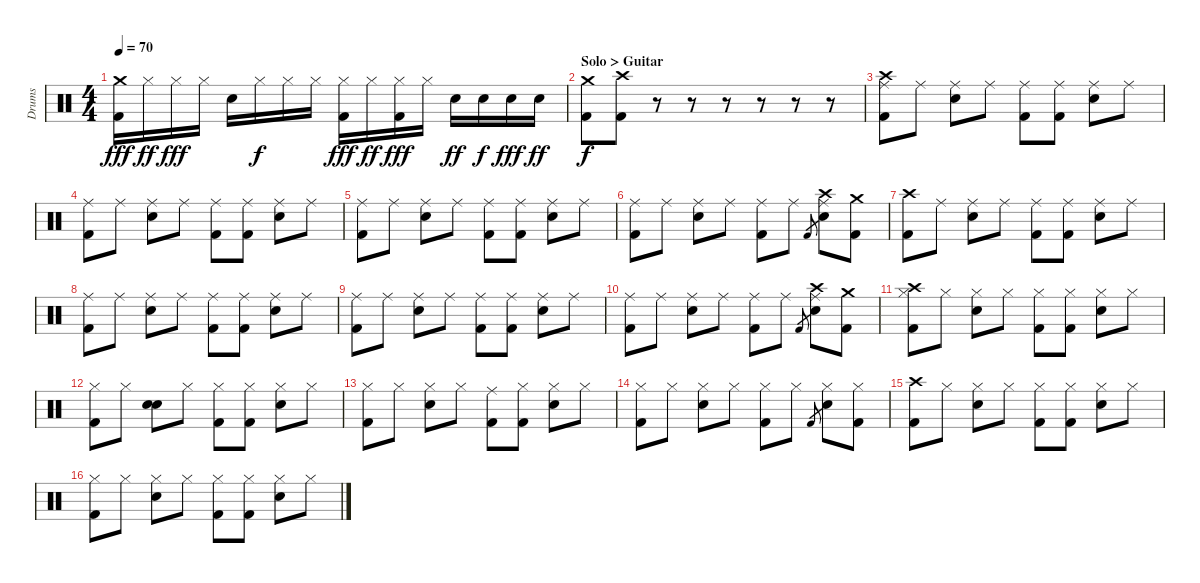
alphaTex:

\track ("Drums" "Drums") {instrument percussion}
\staff {score}
\articulation defaults
\ts (4 4)
\tempo 70
\clef neutral
\ks c
("Crash medium (hit)" "Kick (hit) 2").16{dy fff} "Hi-Hat (closed)".16{dy ff} "Hi-Hat (closed)".16{dy fff} "Hi-Hat (closed)".16 "Electric Snare (hit)".16 "Hi-Hat (closed)".16{dy f} "Hi-Hat (closed)".16 "Hi-Hat (closed)".16 ("Hi-Hat (closed)" "Kick (hit) 2").16{dy fff} "Hi-Hat (closed)".16{dy ff} ("Hi-Hat (closed)" "Kick (hit) 2").16{dy fff} "Hi-Hat (closed)".16 "Electric Snare (hit)".16{dy ff} "Electric Snare (hit)".16{dy f} "Electric Snare (hit)".16{dy fff} "Electric Snare (hit)".16{dy ff} |
\section ("" "Solo > Guitar")
("Crash medium (hit)" "Kick (hit) 2").8{dy f} ("Crash high (hit)" "Kick (hit) 2").8 r.8 r.8 r.8 r.8 r.8 r.8 |
("Crash high (hit)" "Ride (middle)" "Kick (hit) 2").8 "Ride (middle)".8 ("Ride (middle)" "Electric Snare (hit)").8 "Ride (middle)".8 ("Ride (middle)" "Kick (hit) 2").8 ("Ride (middle)" "Kick (hit) 2").8 ("Ride (middle)" "Electric Snare (hit)").8 "Ride (middle)".8 |
("Ride (middle)" "Kick (hit) 2").8 "Ride (middle)".8 ("Ride (middle)" "Electric Snare (hit)").8 "Ride (middle)".8 ("Ride (middle)" "Kick (hit) 2").8 ("Ride (middle)" "Kick (hit) 2").8 ("Ride (middle)" "Electric Snare (hit)").8 "Ride (middle)".8 |
("Ride (middle)" "Kick (hit) 2").8 "Ride (middle)".8 ("Ride (middle)" "Electric Snare (hit)").8 "Ride (middle)".8 ("Ride (middle)" "Kick (hit) 2").8 ("Ride (middle)" "Kick (hit) 2").8 ("Ride (middle)" "Electric Snare (hit)").8 "Ride (middle)".8 |
("Ride (middle)" "Kick (hit) 2").8 "Ride (middle)".8 ("Ride (middle)" "Electric Snare (hit)").8 "Ride (middle)".8 ("Ride (middle)" "Kick (hit) 2").8 "Ride (middle)".8 "Kick (hit) 2".8{gr} ("Crash high (hit)" "Ride (middle)" "Electric Snare (hit)").8 ("Crash medium (hit)" "Kick (hit) 2").8 |
("Crash high (hit)" "Kick (hit) 2").8 "Ride (middle)".8 ("Ride (middle)" "Electric Snare (hit)").8 "Ride (middle)".8 ("Ride (middle)" "Kick (hit) 2").8 ("Ride (middle)" "Kick (hit) 2").8 ("Ride (middle)" "Electric Snare (hit)").8 "Ride (middle)".8 |
("Ride (middle)" "Kick (hit) 2").8 "Ride (middle)".8 ("Ride (middle)" "Electric Snare (hit)").8 "Ride (middle)".8 ("Ride (middle)" "Kick (hit) 2").8 ("Ride (middle)" "Kick (hit) 2").8 ("Ride (middle)" "Electric Snare (hit)").8 "Ride (middle)".8 |
("Ride (middle)" "Kick (hit) 2").8 "Ride (middle)".8 ("Ride (middle)" "Electric Snare (hit)").8 "Ride (middle)".8 ("Ride (middle)" "Kick (hit) 2").8 ("Ride (middle)" "Kick (hit) 2").8 ("Ride (middle)" "Electric Snare (hit)").8 "Ride (middle)".8 |
("Ride (middle)" "Kick (hit) 2").8 "Ride (middle)".8 ("Ride (middle)" "Electric Snare (hit)").8 "Ride (middle)".8 ("Ride (middle)" "Kick (hit) 2").8 "Ride (middle)".8 "Kick (hit) 2".8{gr} ("Crash high (hit)" "Ride (middle)" "Electric Snare (hit)").8 ("Crash medium (hit)" "Kick (hit) 2").8 |
("Crash high (hit)" "Hi-Hat (closed)" "Kick (hit) 2").8 "Hi-Hat (closed)".8 ("Hi-Hat (closed)" "Electric Snare (hit)").8 "Hi-Hat (closed)".8 ("Hi-Hat (closed)" "Kick (hit) 2").8 ("Hi-Hat (closed)" "Kick (hit) 2").8 ("Hi-Hat (closed)" "Electric Snare (hit)").8 "Hi-Hat (closed)".8 |
("Hi-Hat (closed)" "Kick (hit) 2").8 "Hi-Hat (closed)".8 ("Snare (hit)" "Electric Snare (hit)").8 "Hi-Hat (closed)".8 ("Hi-Hat (closed)" "Kick (hit) 2").8 ("Hi-Hat (closed)" "Kick (hit) 2").8 ("Hi-Hat (closed)" "Electric Snare (hit)").8 "Hi-Hat (closed)".8 |
("Hi-Hat (closed)" "Kick (hit) 2").8 "Hi-Hat (closed)".8 ("Hi-Hat (closed)" "Electric Snare (hit)").8 "Hi-Hat (closed)".8 ("Ride (middle)" "Kick (hit) 2").8 ("Hi-Hat (closed)" "Kick (hit) 2").8 ("Hi-Hat (closed)" "Electric Snare (hit)").8 "Hi-Hat (closed)".8 |
("Hi-Hat (closed)" "Kick (hit) 2").8 "Hi-Hat (closed)".8 ("Hi-Hat (closed)" "Electric Snare (hit)").8 "Hi-Hat (closed)".8 ("Hi-Hat (closed)" "Kick (hit) 2").8 "Hi-Hat (closed)".8 "Kick (hit) 2".8{gr} ("Hi-Hat (closed)" "Electric Snare (hit)").8 ("Hi-Hat (closed)" "Kick (hit) 2").8 |
("Crash high (hit)" "Kick (hit) 2").8 "Hi-Hat (closed)".8 ("Hi-Hat (closed)" "Electric Snare (hit)").8 "Hi-Hat (closed)".8 ("Hi-Hat (closed)" "Kick (hit) 2").8 ("Hi-Hat (closed)" "Kick (hit) 2").8 ("Hi-Hat (closed)" "Electric Snare (hit)").8 "Hi-Hat (closed)".8 |
("Hi-Hat (closed)" "Kick (hit) 2").8 "Hi-Hat (closed)".8 ("Hi-Hat (closed)" "Electric Snare (hit)").8 "Hi-Hat (closed)".8 ("Hi-Hat (closed)" "Kick (hit) 2").8 ("Hi-Hat (closed)" "Kick (hit) 2").8 ("Hi-Hat (closed)" "Electric Snare (hit)").8 "Hi-Hat (closed)".8
